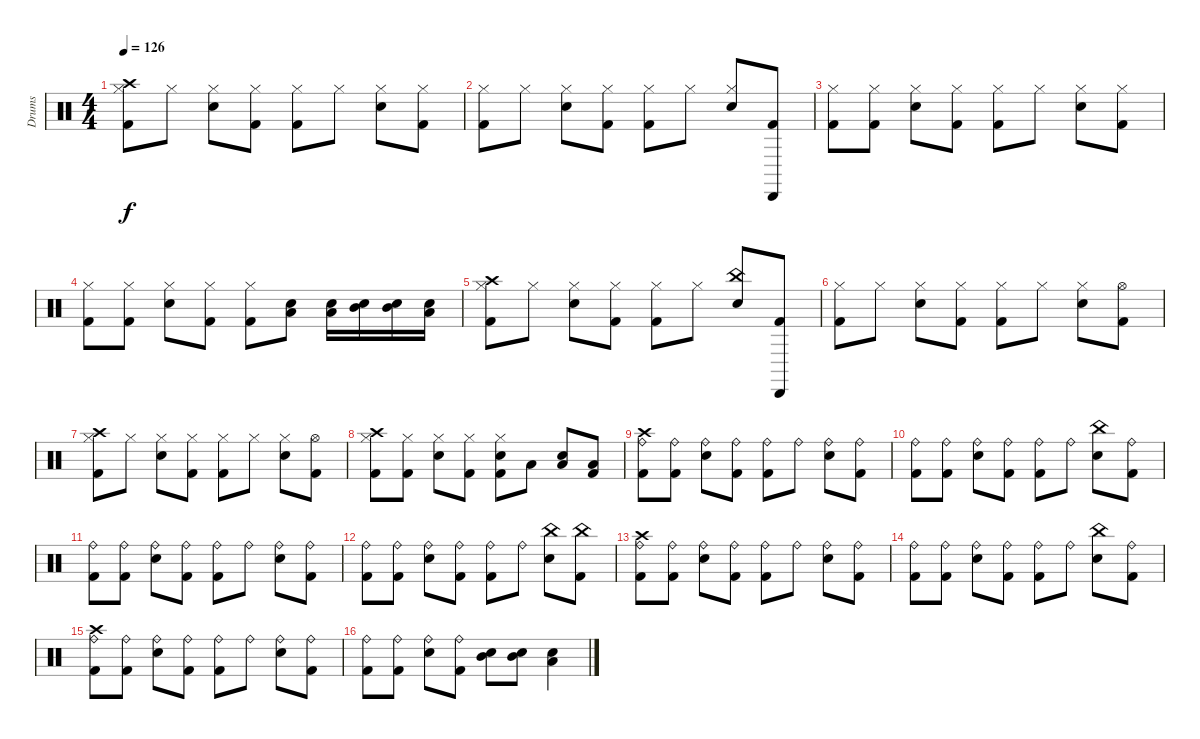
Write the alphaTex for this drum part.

\track ("Drums" "Drums") {instrument percussion}
\staff {score}
\articulation defaults
\ts (4 4)
\tempo 126
\clef neutral
\ks c
("Crash high (hit)" "Hi-Hat (closed)" "Kick (hit) 2").8{dy f} "Hi-Hat (closed)".8 ("Hi-Hat (closed)" "Snare (hit) 2").8 ("Hi-Hat (closed)" "Kick (hit) 2").8 ("Hi-Hat (closed)" "Kick (hit) 2").8 "Hi-Hat (closed)".8 ("Hi-Hat (closed)" "Snare (hit) 2").8 ("Hi-Hat (closed)" "Kick (hit) 2").8 |
("Hi-Hat (closed)" "Kick (hit) 2").8 "Hi-Hat (closed)".8 ("Hi-Hat (closed)" "Snare (hit) 2").8 ("Hi-Hat (closed)" "Kick (hit) 2").8 ("Hi-Hat (closed)" "Kick (hit) 2").8 "Hi-Hat (closed)".8 ("Hi-Hat (closed)" "Snare (hit) 2").8 ("Cabasa (hit)" "Kick (hit) 2").8 |
("Hi-Hat (closed)" "Kick (hit) 2").8 ("Hi-Hat (closed)" "Kick (hit) 2").8 ("Hi-Hat (closed)" "Snare (hit) 2").8 ("Hi-Hat (closed)" "Kick (hit) 2").8 ("Hi-Hat (closed)" "Kick (hit) 2").8 "Hi-Hat (closed)".8 ("Hi-Hat (closed)" "Snare (hit) 2").8 ("Hi-Hat (closed)" "Kick (hit) 2").8 |
("Hi-Hat (closed)" "Kick (hit) 2").8 ("Hi-Hat (closed)" "Kick (hit) 2").8 ("Hi-Hat (closed)" "Snare (hit) 2").8 ("Hi-Hat (closed)" "Kick (hit) 2").8 ("Hi-Hat (closed)" "Kick (hit) 2").8 ("Low Tom (hit)" "Snare (hit) 2").8 ("Low Tom (hit)" "Snare (hit) 2").16 ("Mid Tom (hit)" "Snare (hit) 2").16 ("Mid Tom (hit)" "Snare (hit) 2").16 ("Low Tom (hit)" "Snare (hit) 2").16 |
("Crash high (hit)" "Hi-Hat (closed)" "Kick (hit) 2").8 "Hi-Hat (closed)".8 ("Hi-Hat (closed)" "Snare (hit) 2").8 ("Hi-Hat (closed)" "Kick (hit) 2").8 ("Hi-Hat (closed)" "Kick (hit) 2").8 "Hi-Hat (closed)".8 ("China (hit)" "Snare (hit) 2").8 ("Cabasa (hit)" "Kick (hit) 2").8 |
("Hi-Hat (closed)" "Kick (hit) 2").8 "Hi-Hat (closed)".8 ("Hi-Hat (closed)" "Snare (hit) 2").8 ("Hi-Hat (closed)" "Kick (hit) 2").8 ("Hi-Hat (closed)" "Kick (hit) 2").8 "Hi-Hat (closed)".8 ("Hi-Hat (closed)" "Snare (hit) 2").8 ("Hi-Hat (open)" "Kick (hit) 2").8 |
("Crash high (hit)" "Hi-Hat (closed)" "Kick (hit) 2").8 "Hi-Hat (closed)".8 ("Hi-Hat (closed)" "Snare (hit) 2").8 ("Hi-Hat (closed)" "Kick (hit) 2").8 ("Hi-Hat (closed)" "Kick (hit) 2").8 "Hi-Hat (closed)".8 ("Hi-Hat (closed)" "Snare (hit) 2").8 ("Hi-Hat (open)" "Kick (hit) 2").8 |
("Crash high (hit)" "Hi-Hat (closed)" "Kick (hit) 2").8 ("Hi-Hat (closed)" "Kick (hit) 2").8 ("Hi-Hat (closed)" "Snare (hit) 2").8 ("Hi-Hat (closed)" "Kick (hit) 2").8 ("Hi-Hat (closed)" "Snare (hit) 2" "Kick (hit) 2").8 "Low Tom (hit)".8 ("Low Tom (hit)" "Snare (hit) 2").8 ("Low Tom (hit)" "Kick (hit) 2").8 |
("Crash high (hit)" "Ride (bell)" "Kick (hit) 2").8 ("Ride (bell)" "Kick (hit) 2").8 ("Ride (bell)" "Snare (hit) 2").8 ("Ride (bell)" "Kick (hit) 2").8 ("Ride (bell)" "Kick (hit) 2").8 "Ride (bell)".8 ("Ride (bell)" "Snare (hit) 2").8 ("Ride (bell)" "Kick (hit) 2").8 |
("Ride (bell)" "Kick (hit) 2").8 ("Ride (bell)" "Kick (hit) 2").8 ("Ride (bell)" "Snare (hit) 2").8 ("Ride (bell)" "Kick (hit) 2").8 ("Ride (bell)" "Kick (hit) 2").8 "Ride (bell)".8 ("China (hit)" "Snare (hit) 2").8 ("Ride (bell)" "Kick (hit) 2").8 |
("Ride (bell)" "Kick (hit) 2").8 ("Ride (bell)" "Kick (hit) 2").8 ("Ride (bell)" "Snare (hit) 2").8 ("Ride (bell)" "Kick (hit) 2").8 ("Ride (bell)" "Kick (hit) 2").8 "Ride (bell)".8 ("Ride (bell)" "Snare (hit) 2").8 ("Ride (bell)" "Kick (hit) 2").8 |
("Ride (bell)" "Kick (hit) 2").8 ("Ride (bell)" "Kick (hit) 2").8 ("Ride (bell)" "Snare (hit) 2").8 ("Ride (bell)" "Kick (hit) 2").8 ("Ride (bell)" "Kick (hit) 2").8 "Ride (bell)".8 ("China (hit)" "Snare (hit) 2").8 ("China (hit)" "Kick (hit) 2").8 |
("Crash high (hit)" "Ride (bell)" "Kick (hit) 2").8 ("Ride (bell)" "Kick (hit) 2").8 ("Ride (bell)" "Snare (hit) 2").8 ("Ride (bell)" "Kick (hit) 2").8 ("Ride (bell)" "Kick (hit) 2").8 "Ride (bell)".8 ("Ride (bell)" "Snare (hit) 2").8 ("Ride (bell)" "Kick (hit) 2").8 |
("Ride (bell)" "Kick (hit) 2").8 ("Ride (bell)" "Kick (hit) 2").8 ("Ride (bell)" "Snare (hit) 2").8 ("Ride (bell)" "Kick (hit) 2").8 ("Ride (bell)" "Kick (hit) 2").8 "Ride (bell)".8 ("China (hit)" "Snare (hit) 2").8 ("Ride (bell)" "Kick (hit) 2").8 |
("Crash high (hit)" "Ride (bell)" "Kick (hit) 2").8 ("Ride (bell)" "Kick (hit) 2").8 ("Ride (bell)" "Snare (hit) 2").8 ("Ride (bell)" "Kick (hit) 2").8 ("Ride (bell)" "Kick (hit) 2").8 "Ride (bell)".8 ("Ride (bell)" "Snare (hit) 2").8 ("Ride (bell)" "Kick (hit) 2").8 |
("Ride (bell)" "Kick (hit) 2").8 ("Ride (bell)" "Kick (hit) 2").8 ("Ride (bell)" "Snare (hit) 2").8 ("Ride (bell)" "Kick (hit) 2").8 ("Mid Tom (hit)" "Snare (hit) 2").8 ("Mid Tom (hit)" "Snare (hit) 2").8 ("Low Tom (hit)" "Snare (hit) 2").4
